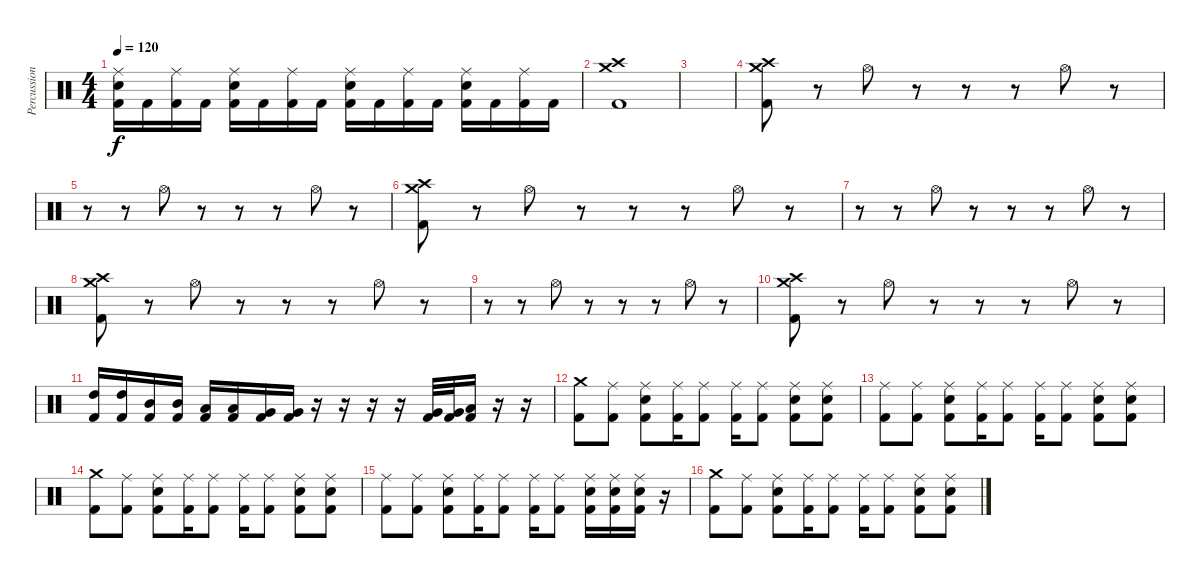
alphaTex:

\track ("Percussion" "Percussion") {instrument percussion}
\staff {score}
\articulation defaults
\ts (4 4)
\tempo 120
\clef neutral
\ks c
("Ride (middle)" "Snare (hit) 2" "Kick (hit) 2").16{dy f} "Kick (hit) 2".16 ("Ride (middle)" "Kick (hit) 2").16 "Kick (hit) 2".16 ("Ride (middle)" "Snare (hit) 2" "Kick (hit) 2").16 "Kick (hit) 2".16 ("Ride (middle)" "Kick (hit) 2").16 "Kick (hit) 2".16 ("Ride (middle)" "Snare (hit) 2" "Kick (hit) 2").16 "Kick (hit) 2".16 ("Ride (middle)" "Kick (hit) 2").16 "Kick (hit) 2".16 ("Ride (middle)" "Snare (hit) 2" "Kick (hit) 2").16 "Kick (hit) 2".16 ("Ride (middle)" "Kick (hit) 2").16 "Kick (hit) 2".16 |
("Crash medium (hit)" "Crash high (hit)" "Kick (hit) 2").1 |
|
("Crash medium (hit)" "Crash high (hit)" "Kick (hit) 2").8 r.8 "Hi-Hat (open)".8 r.8 r.8 r.8 "Hi-Hat (open)".8 r.8 |
r.8 r.8 "Hi-Hat (open)".8 r.8 r.8 r.8 "Hi-Hat (open)".8 r.8 |
("Crash medium (hit)" "Crash high (hit)" "Kick (hit) 2").8 r.8 "Hi-Hat (open)".8 r.8 r.8 r.8 "Hi-Hat (open)".8 r.8 |
r.8 r.8 "Hi-Hat (open)".8 r.8 r.8 r.8 "Hi-Hat (open)".8 r.8 |
("Crash medium (hit)" "Crash high (hit)" "Kick (hit) 2").8 r.8 "Hi-Hat (open)".8 r.8 r.8 r.8 "Hi-Hat (open)".8 r.8 |
r.8 r.8 "Hi-Hat (open)".8 r.8 r.8 r.8 "Hi-Hat (open)".8 r.8 |
("Crash medium (hit)" "Crash high (hit)" "Kick (hit) 2").8 r.8 "Hi-Hat (open)".8 r.8 r.8 r.8 "Hi-Hat (open)".8 r.8 |
("High Tom (hit)" "Kick (hit) 2").16 ("High Tom (hit)" "Kick (hit) 2").16 ("Mid Tom (hit)" "Kick (hit) 2").16 ("Mid Tom (hit)" "Kick (hit) 2").16 ("Low Tom (hit)" "Kick (hit) 2").16 ("Low Tom (hit)" "Kick (hit) 2").16 ("Very Low Tom (hit)" "Kick (hit) 2").16 ("Very Low Tom (hit)" "Kick (hit) 2").16 r.16 r.16 r.16 r.16 ("Very Low Tom (hit)" "Kick (hit) 2").32 ("Very Low Tom (hit)" "Kick (hit) 2").32 ("Low Floor Tom (hit)" "Kick (hit) 2").16 r.16 r.16 |
("Crash medium (hit)" "Kick (hit) 2").8 ("Ride (middle)" "Kick (hit) 2").8 ("Ride (middle)" "Snare (hit) 2" "Kick (hit) 2").8 ("Ride (middle)" "Kick (hit) 2").16 ("Ride (middle)" "Kick (hit) 2").8 ("Ride (middle)" "Kick (hit) 2").16 ("Ride (middle)" "Kick (hit) 2").8 ("Ride (middle)" "Snare (hit) 2" "Kick (hit) 2").8 ("Ride (middle)" "Snare (hit) 2" "Kick (hit) 2").8 |
("Ride (middle)" "Kick (hit) 2").8 ("Ride (middle)" "Kick (hit) 2").8 ("Ride (middle)" "Snare (hit) 2" "Kick (hit) 2").8 ("Ride (middle)" "Kick (hit) 2").16 ("Ride (middle)" "Kick (hit) 2").8 ("Ride (middle)" "Kick (hit) 2").16 ("Ride (middle)" "Kick (hit) 2").8 ("Ride (middle)" "Snare (hit) 2" "Kick (hit) 2").8 ("Ride (middle)" "Snare (hit) 2" "Kick (hit) 2").8 |
("Crash medium (hit)" "Kick (hit) 2").8 ("Ride (middle)" "Kick (hit) 2").8 ("Ride (middle)" "Snare (hit) 2" "Kick (hit) 2").8 ("Ride (middle)" "Kick (hit) 2").16 ("Ride (middle)" "Kick (hit) 2").8 ("Ride (middle)" "Kick (hit) 2").16 ("Ride (middle)" "Kick (hit) 2").8 ("Ride (middle)" "Snare (hit) 2" "Kick (hit) 2").8 ("Ride (middle)" "Snare (hit) 2" "Kick (hit) 2").8 |
("Ride (middle)" "Kick (hit) 2").8 ("Ride (middle)" "Kick (hit) 2").8 ("Ride (middle)" "Snare (hit) 2" "Kick (hit) 2").8 ("Ride (middle)" "Kick (hit) 2").16 ("Ride (middle)" "Kick (hit) 2").8 ("Ride (middle)" "Kick (hit) 2").16 ("Ride (middle)" "Kick (hit) 2").8 ("Ride (middle)" "Snare (hit) 2" "Kick (hit) 2").16 ("Ride (middle)" "Snare (hit) 2" "Kick (hit) 2").16 ("Ride (middle)" "Snare (hit) 2" "Kick (hit) 2").16 r.16 |
("Crash medium (hit)" "Kick (hit) 2").8 ("Ride (middle)" "Kick (hit) 2").8 ("Ride (middle)" "Snare (hit) 2" "Kick (hit) 2").8 ("Ride (middle)" "Kick (hit) 2").16 ("Ride (middle)" "Kick (hit) 2").8 ("Ride (middle)" "Kick (hit) 2").16 ("Ride (middle)" "Kick (hit) 2").8 ("Ride (middle)" "Snare (hit) 2" "Kick (hit) 2").8 ("Ride (middle)" "Snare (hit) 2" "Kick (hit) 2").8
